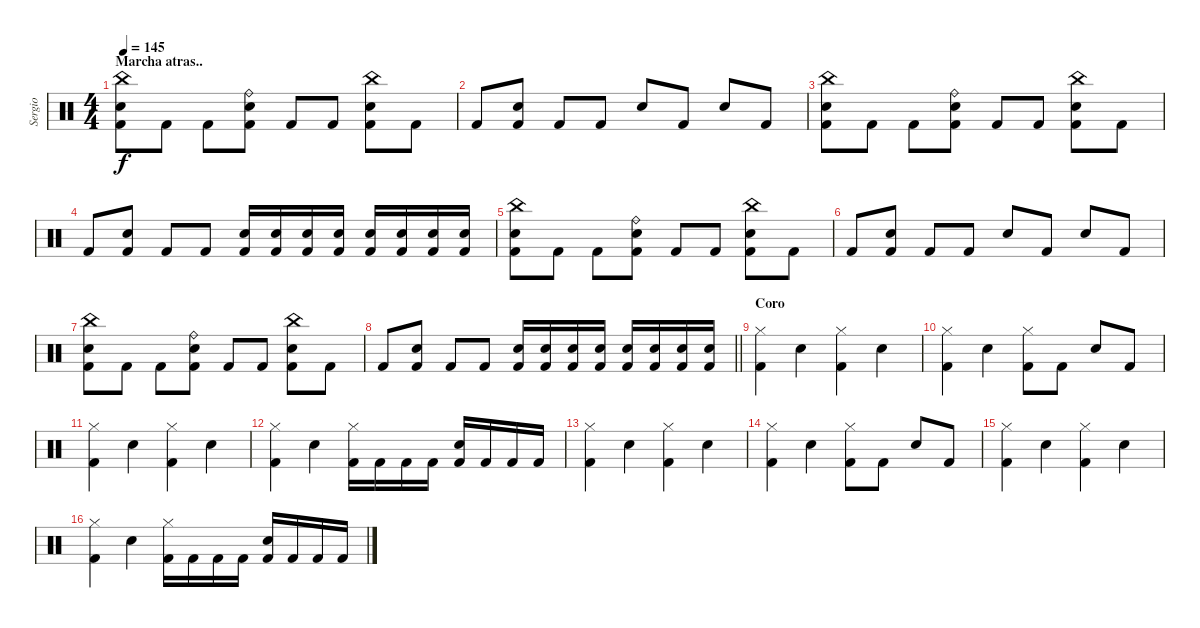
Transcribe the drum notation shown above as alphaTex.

\track ("Sergio" "Sergio") {instrument percussion}
\staff {score}
\articulation defaults
\ts (4 4)
\section ("" "Marcha atras..")
\tempo 145
\clef neutral
\ks c
("China (hit)" "Electric Snare (hit)" "Kick (hit) 2").8{dy f} "Kick (hit) 2".8 "Kick (hit) 2".8 ("Ride (bell)" "Electric Snare (hit)" "Kick (hit) 2").8 "Kick (hit) 2".8 "Kick (hit) 2".8 ("China (hit)" "Electric Snare (hit)" "Kick (hit) 2").8 "Kick (hit) 2".8 |
"Kick (hit) 2".8 ("Electric Snare (hit)" "Kick (hit) 2").8 "Kick (hit) 2".8 "Kick (hit) 2".8 "Electric Snare (hit)".8 "Kick (hit) 2".8 "Electric Snare (hit)".8 "Kick (hit) 2".8 |
("China (hit)" "Electric Snare (hit)" "Kick (hit) 2").8 "Kick (hit) 2".8 "Kick (hit) 2".8 ("Ride (bell)" "Electric Snare (hit)" "Kick (hit) 2").8 "Kick (hit) 2".8 "Kick (hit) 2".8 ("China (hit)" "Electric Snare (hit)" "Kick (hit) 2").8 "Kick (hit) 2".8 |
"Kick (hit) 2".8 ("Electric Snare (hit)" "Kick (hit) 2").8 "Kick (hit) 2".8 "Kick (hit) 2".8 ("Electric Snare (hit)" "Kick (hit) 2").16 ("Electric Snare (hit)" "Kick (hit) 2").16 ("Electric Snare (hit)" "Kick (hit) 2").16 ("Electric Snare (hit)" "Kick (hit) 2").16 ("Electric Snare (hit)" "Kick (hit) 2").16 ("Electric Snare (hit)" "Kick (hit) 2").16 ("Electric Snare (hit)" "Kick (hit) 2").16 ("Electric Snare (hit)" "Kick (hit) 2").16 |
("China (hit)" "Electric Snare (hit)" "Kick (hit) 2").8 "Kick (hit) 2".8 "Kick (hit) 2".8 ("Ride (bell)" "Electric Snare (hit)" "Kick (hit) 2").8 "Kick (hit) 2".8 "Kick (hit) 2".8 ("China (hit)" "Electric Snare (hit)" "Kick (hit) 2").8 "Kick (hit) 2".8 |
"Kick (hit) 2".8 ("Electric Snare (hit)" "Kick (hit) 2").8 "Kick (hit) 2".8 "Kick (hit) 2".8 "Electric Snare (hit)".8 "Kick (hit) 2".8 "Electric Snare (hit)".8 "Kick (hit) 2".8 |
("China (hit)" "Electric Snare (hit)" "Kick (hit) 2").8 "Kick (hit) 2".8 "Kick (hit) 2".8 ("Ride (bell)" "Electric Snare (hit)" "Kick (hit) 2").8 "Kick (hit) 2".8 "Kick (hit) 2".8 ("China (hit)" "Electric Snare (hit)" "Kick (hit) 2").8 "Kick (hit) 2".8 |
\barLineRight lightlight "Kick (hit) 2".8
("Electric Snare (hit)" "Kick (hit) 2").8 "Kick (hit) 2".8 "Kick (hit) 2".8 ("Electric Snare (hit)" "Kick (hit) 2").16 ("Electric Snare (hit)" "Kick (hit) 2").16 ("Electric Snare (hit)" "Kick (hit) 2").16 ("Electric Snare (hit)" "Kick (hit) 2").16 ("Electric Snare (hit)" "Kick (hit) 2").16 ("Electric Snare (hit)" "Kick (hit) 2").16 ("Electric Snare (hit)" "Kick (hit) 2").16 ("Electric Snare (hit)" "Kick (hit) 2").16 |
\section ("" "Coro")
("Hi-Hat (closed)" "Kick (hit) 2").4 "Electric Snare (hit)".4 ("Hi-Hat (closed)" "Kick (hit) 2").4 "Electric Snare (hit)".4 |
("Hi-Hat (closed)" "Kick (hit) 2").4 "Electric Snare (hit)".4 ("Hi-Hat (closed)" "Kick (hit) 2").8 "Kick (hit) 2".8 "Electric Snare (hit)".8 "Kick (hit) 2".8 |
("Hi-Hat (closed)" "Kick (hit) 2").4 "Electric Snare (hit)".4 ("Hi-Hat (closed)" "Kick (hit) 2").4 "Electric Snare (hit)".4 |
("Hi-Hat (closed)" "Kick (hit) 2").4 "Electric Snare (hit)".4 ("Hi-Hat (closed)" "Kick (hit) 2").16 "Kick (hit) 2".16 "Kick (hit) 2".16 "Kick (hit) 2".16 ("Electric Snare (hit)" "Kick (hit) 2").16 "Kick (hit) 2".16 "Kick (hit) 2".16 "Kick (hit) 2".16 |
("Hi-Hat (closed)" "Kick (hit) 2").4 "Electric Snare (hit)".4 ("Hi-Hat (closed)" "Kick (hit) 2").4 "Electric Snare (hit)".4 |
("Hi-Hat (closed)" "Kick (hit) 2").4 "Electric Snare (hit)".4 ("Hi-Hat (closed)" "Kick (hit) 2").8 "Kick (hit) 2".8 "Electric Snare (hit)".8 "Kick (hit) 2".8 |
("Hi-Hat (closed)" "Kick (hit) 2").4 "Electric Snare (hit)".4 ("Hi-Hat (closed)" "Kick (hit) 2").4 "Electric Snare (hit)".4 |
("Hi-Hat (closed)" "Kick (hit) 2").4 "Electric Snare (hit)".4 ("Hi-Hat (closed)" "Kick (hit) 2").16 "Kick (hit) 2".16 "Kick (hit) 2".16 "Kick (hit) 2".16 ("Electric Snare (hit)" "Kick (hit) 2").16 "Kick (hit) 2".16 "Kick (hit) 2".16 "Kick (hit) 2".16
